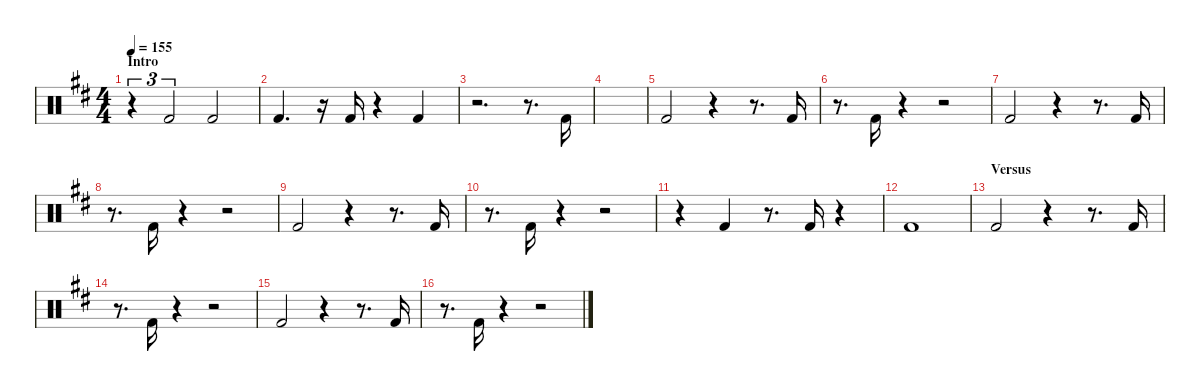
\hideDynamics
\bracketExtendMode nobrackets
\singleTrackTrackNamePolicy hidden
\multiTrackTrackNamePolicy hidden
\otherSystemsTrackNameOrientation horizontal
\track ("Kick" "Drums") {instrument percussion}
\staff {score}
\articulation defaults
\ts (4 4)
\section ("" "Intro")
\tempo 155
\clef neutral
\ks d
r.4{tu (3 2) dy mf beam Down} "Kick (hit) 2"{acc forcenatural}.2{tu (3 2) beam Up} "Kick (hit) 2"{acc forcenatural}.2{beam Up} |
"Kick (hit) 2"{acc forcenatural}.4{d beam Up} r.16{beam Up} "Kick (hit) 2"{acc forcenatural}.16{beam Up} r.4{beam Up} "Kick (hit) 2"{acc forcenatural}.4{beam Up} |
r.2{d beam Down} r.8{d beam Down} "Kick (hit) 2"{acc forcenatural}.16{dy f beam Up} |
|
"Kick (hit) 2"{acc forcenatural}.2{beam Up} r.4{beam Up} r.8{d beam Up} "Kick (hit) 2"{acc forcenatural}.16{dy mf beam Up} |
r.8{d beam Down} "Kick (hit) 2"{acc forcenatural}.16{dy f beam Up} r.4{beam Up} r.2{beam Up} |
"Kick (hit) 2"{acc forcenatural}.2{beam Up} r.4{beam Up} r.8{d beam Up} "Kick (hit) 2"{acc forcenatural}.16{dy mf beam Up} |
r.8{d beam Down} "Kick (hit) 2"{acc forcenatural}.16{dy f beam Up} r.4{beam Up} r.2{beam Up} |
"Kick (hit) 2"{acc forcenatural}.2{beam Up} r.4{beam Up} r.8{d beam Up} "Kick (hit) 2"{acc forcenatural}.16{dy mf beam Up} |
r.8{d beam Down} "Kick (hit) 2"{acc forcenatural}.16{dy f beam Up} r.4{beam Up} r.2{beam Up} |
r.4{beam Down} "Kick (hit) 2"{acc forcenatural}.4{dy mf beam Up} r.8{d beam Up} "Kick (hit) 2"{acc forcenatural}.16{beam Up} r.4{beam Up} |
"Kick (hit) 2"{acc forcenatural}.1{beam Up} |
\section ("" "Versus")
"Kick (hit) 2"{acc forcenatural}.2{dy f beam Up} r.4{beam Up} r.8{d beam Up} "Kick (hit) 2"{acc forcenatural}.16{dy mf beam Up} |
r.8{d beam Down} "Kick (hit) 2"{acc forcenatural}.16{dy f beam Up} r.4{beam Up} r.2{beam Up} |
"Kick (hit) 2"{acc forcenatural}.2{beam Up} r.4{beam Up} r.8{d beam Up} "Kick (hit) 2"{acc forcenatural}.16{dy mf beam Up} |
r.8{d beam Down} "Kick (hit) 2"{acc forcenatural}.16{dy f beam Up} r.4{beam Up} r.2{beam Up}
